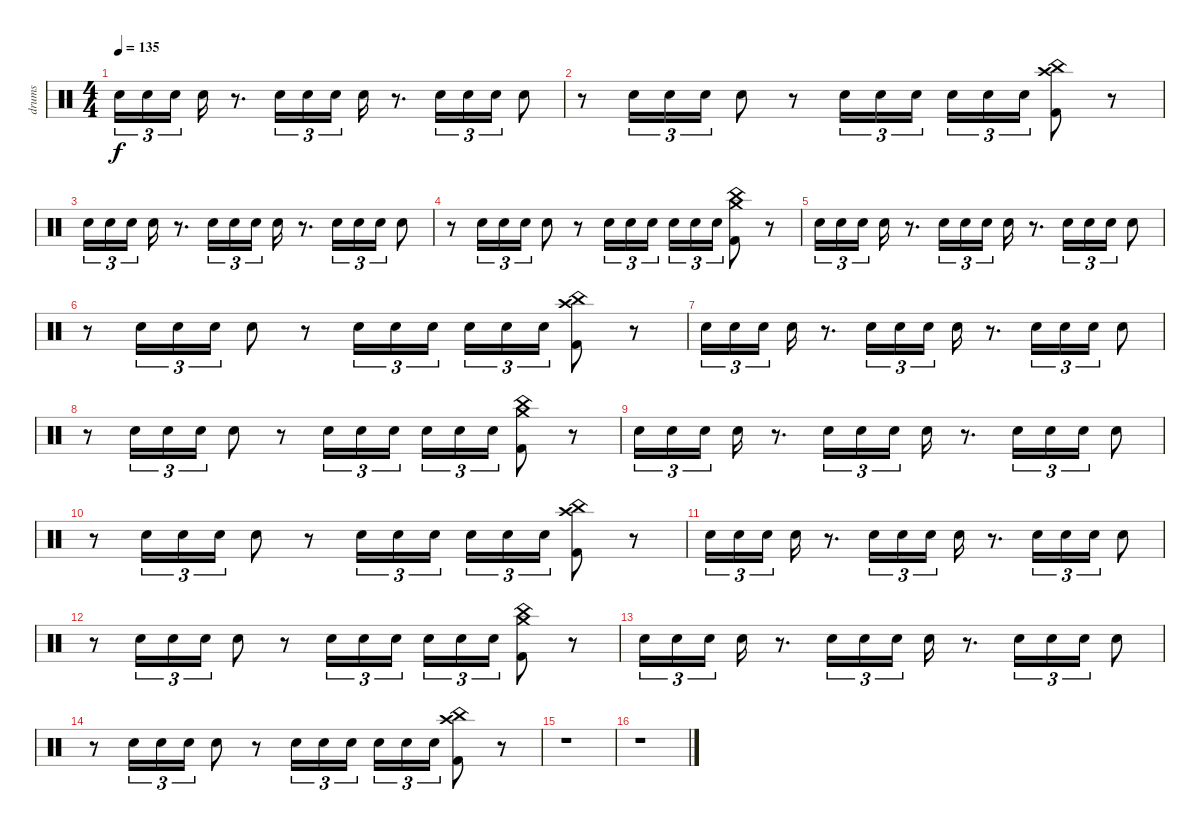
\track ("drums" "drums") {instrument percussion}
\staff {score}
\articulation defaults
\ts (4 4)
\tempo 135
\clef neutral
\ks c "Electric Snare (hit)".16{tu (3 2) dy f} "Electric Snare (hit)".16{tu (3 2)} "Electric Snare (hit)".16{tu (3 2) beam splitsecondary} "Electric Snare (hit)".16
r.8{d} "Electric Snare (hit)".16{tu (3 2)} "Electric Snare (hit)".16{tu (3 2)} "Electric Snare (hit)".16{tu (3 2)} "Electric Snare (hit)".16 r.8{d} "Electric Snare (hit)".16{tu (3 2)} "Electric Snare (hit)".16{tu (3 2)} "Electric Snare (hit)".16{tu (3 2)} "Electric Snare (hit)".8 |
r.8 "Electric Snare (hit)".16{tu (3 2)} "Electric Snare (hit)".16{tu (3 2)} "Electric Snare (hit)".16{tu (3 2)} "Electric Snare (hit)".8 r.8 "Electric Snare (hit)".16{tu (3 2)} "Electric Snare (hit)".16{tu (3 2)} "Electric Snare (hit)".16{tu (3 2) beam splitsecondary} "Electric Snare (hit)".16{tu (3 2)} "Electric Snare (hit)".16{tu (3 2)} "Electric Snare (hit)".16{tu (3 2)} ("Crash high (hit)" "China (hit)" "Kick (hit) 2").8 r.8 |
"Electric Snare (hit)".16{tu (3 2)} "Electric Snare (hit)".16{tu (3 2)} "Electric Snare (hit)".16{tu (3 2) beam splitsecondary} "Electric Snare (hit)".16 r.8{d} "Electric Snare (hit)".16{tu (3 2)} "Electric Snare (hit)".16{tu (3 2)} "Electric Snare (hit)".16{tu (3 2)} "Electric Snare (hit)".16 r.8{d} "Electric Snare (hit)".16{tu (3 2)} "Electric Snare (hit)".16{tu (3 2)} "Electric Snare (hit)".16{tu (3 2)} "Electric Snare (hit)".8 |
r.8 "Electric Snare (hit)".16{tu (3 2)} "Electric Snare (hit)".16{tu (3 2)} "Electric Snare (hit)".16{tu (3 2)} "Electric Snare (hit)".8 r.8 "Electric Snare (hit)".16{tu (3 2)} "Electric Snare (hit)".16{tu (3 2)} "Electric Snare (hit)".16{tu (3 2) beam splitsecondary} "Electric Snare (hit)".16{tu (3 2)} "Electric Snare (hit)".16{tu (3 2)} "Electric Snare (hit)".16{tu (3 2)} ("Crash medium (hit)" "China (hit)" "Kick (hit) 2").8 r.8 |
"Electric Snare (hit)".16{tu (3 2)} "Electric Snare (hit)".16{tu (3 2)} "Electric Snare (hit)".16{tu (3 2) beam splitsecondary} "Electric Snare (hit)".16 r.8{d} "Electric Snare (hit)".16{tu (3 2)} "Electric Snare (hit)".16{tu (3 2)} "Electric Snare (hit)".16{tu (3 2)} "Electric Snare (hit)".16 r.8{d} "Electric Snare (hit)".16{tu (3 2)} "Electric Snare (hit)".16{tu (3 2)} "Electric Snare (hit)".16{tu (3 2)} "Electric Snare (hit)".8 |
r.8 "Electric Snare (hit)".16{tu (3 2)} "Electric Snare (hit)".16{tu (3 2)} "Electric Snare (hit)".16{tu (3 2)} "Electric Snare (hit)".8 r.8 "Electric Snare (hit)".16{tu (3 2)} "Electric Snare (hit)".16{tu (3 2)} "Electric Snare (hit)".16{tu (3 2) beam splitsecondary} "Electric Snare (hit)".16{tu (3 2)} "Electric Snare (hit)".16{tu (3 2)} "Electric Snare (hit)".16{tu (3 2)} ("Crash high (hit)" "China (hit)" "Kick (hit) 2").8 r.8 |
"Electric Snare (hit)".16{tu (3 2)} "Electric Snare (hit)".16{tu (3 2)} "Electric Snare (hit)".16{tu (3 2) beam splitsecondary} "Electric Snare (hit)".16 r.8{d} "Electric Snare (hit)".16{tu (3 2)} "Electric Snare (hit)".16{tu (3 2)} "Electric Snare (hit)".16{tu (3 2)} "Electric Snare (hit)".16 r.8{d} "Electric Snare (hit)".16{tu (3 2)} "Electric Snare (hit)".16{tu (3 2)} "Electric Snare (hit)".16{tu (3 2)} "Electric Snare (hit)".8 |
r.8 "Electric Snare (hit)".16{tu (3 2)} "Electric Snare (hit)".16{tu (3 2)} "Electric Snare (hit)".16{tu (3 2)} "Electric Snare (hit)".8 r.8 "Electric Snare (hit)".16{tu (3 2)} "Electric Snare (hit)".16{tu (3 2)} "Electric Snare (hit)".16{tu (3 2) beam splitsecondary} "Electric Snare (hit)".16{tu (3 2)} "Electric Snare (hit)".16{tu (3 2)} "Electric Snare (hit)".16{tu (3 2)} ("Crash medium (hit)" "China (hit)" "Kick (hit) 2").8 r.8 |
"Electric Snare (hit)".16{tu (3 2)} "Electric Snare (hit)".16{tu (3 2)} "Electric Snare (hit)".16{tu (3 2) beam splitsecondary} "Electric Snare (hit)".16 r.8{d} "Electric Snare (hit)".16{tu (3 2)} "Electric Snare (hit)".16{tu (3 2)} "Electric Snare (hit)".16{tu (3 2)} "Electric Snare (hit)".16 r.8{d} "Electric Snare (hit)".16{tu (3 2)} "Electric Snare (hit)".16{tu (3 2)} "Electric Snare (hit)".16{tu (3 2)} "Electric Snare (hit)".8 |
r.8 "Electric Snare (hit)".16{tu (3 2)} "Electric Snare (hit)".16{tu (3 2)} "Electric Snare (hit)".16{tu (3 2)} "Electric Snare (hit)".8 r.8 "Electric Snare (hit)".16{tu (3 2)} "Electric Snare (hit)".16{tu (3 2)} "Electric Snare (hit)".16{tu (3 2) beam splitsecondary} "Electric Snare (hit)".16{tu (3 2)} "Electric Snare (hit)".16{tu (3 2)} "Electric Snare (hit)".16{tu (3 2)} ("Crash high (hit)" "China (hit)" "Kick (hit) 2").8 r.8 |
"Electric Snare (hit)".16{tu (3 2)} "Electric Snare (hit)".16{tu (3 2)} "Electric Snare (hit)".16{tu (3 2) beam splitsecondary} "Electric Snare (hit)".16 r.8{d} "Electric Snare (hit)".16{tu (3 2)} "Electric Snare (hit)".16{tu (3 2)} "Electric Snare (hit)".16{tu (3 2)} "Electric Snare (hit)".16 r.8{d} "Electric Snare (hit)".16{tu (3 2)} "Electric Snare (hit)".16{tu (3 2)} "Electric Snare (hit)".16{tu (3 2)} "Electric Snare (hit)".8 |
r.8 "Electric Snare (hit)".16{tu (3 2)} "Electric Snare (hit)".16{tu (3 2)} "Electric Snare (hit)".16{tu (3 2)} "Electric Snare (hit)".8 r.8 "Electric Snare (hit)".16{tu (3 2)} "Electric Snare (hit)".16{tu (3 2)} "Electric Snare (hit)".16{tu (3 2) beam splitsecondary} "Electric Snare (hit)".16{tu (3 2)} "Electric Snare (hit)".16{tu (3 2)} "Electric Snare (hit)".16{tu (3 2)} ("Crash medium (hit)" "China (hit)" "Kick (hit) 2").8 r.8 |
"Electric Snare (hit)".16{tu (3 2)} "Electric Snare (hit)".16{tu (3 2)} "Electric Snare (hit)".16{tu (3 2) beam splitsecondary} "Electric Snare (hit)".16 r.8{d} "Electric Snare (hit)".16{tu (3 2)} "Electric Snare (hit)".16{tu (3 2)} "Electric Snare (hit)".16{tu (3 2)} "Electric Snare (hit)".16 r.8{d} "Electric Snare (hit)".16{tu (3 2)} "Electric Snare (hit)".16{tu (3 2)} "Electric Snare (hit)".16{tu (3 2)} "Electric Snare (hit)".8 |
r.8 "Electric Snare (hit)".16{tu (3 2)} "Electric Snare (hit)".16{tu (3 2)} "Electric Snare (hit)".16{tu (3 2)} "Electric Snare (hit)".8 r.8 "Electric Snare (hit)".16{tu (3 2)} "Electric Snare (hit)".16{tu (3 2)} "Electric Snare (hit)".16{tu (3 2) beam splitsecondary} "Electric Snare (hit)".16{tu (3 2)} "Electric Snare (hit)".16{tu (3 2)} "Electric Snare (hit)".16{tu (3 2)} ("Crash high (hit)" "China (hit)" "Kick (hit) 2").8 r.8 |
r.1 |
r.1
